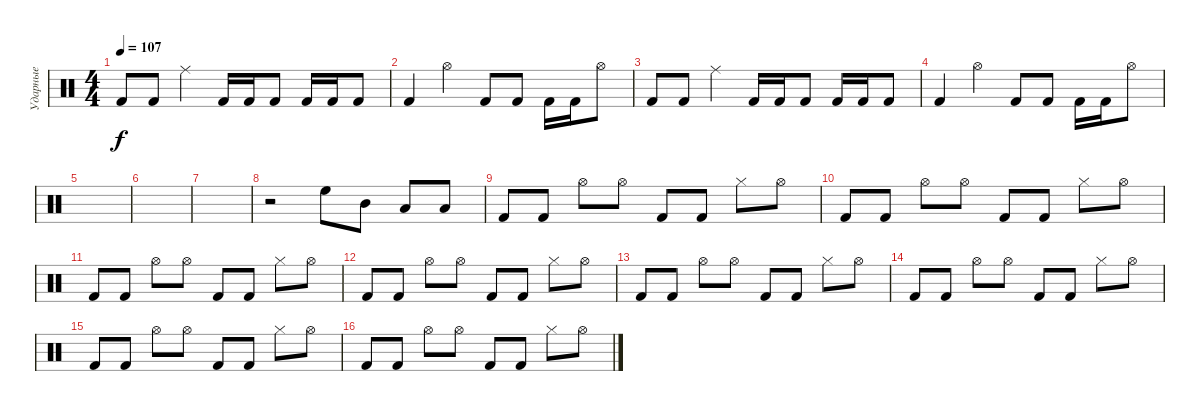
\track ("Ударные" "Ударные") {instrument percussion}
\staff {score}
\articulation defaults
\ts (4 4)
\tempo 107
\clef neutral
\ks c "Kick (hit) 2".8{dy f} "Kick (hit) 2".8 "Ride (middle)".4 "Kick (hit) 2".16 "Kick (hit) 2".16 "Kick (hit) 2".8 "Kick (hit) 2".16 "Kick (hit) 2".16 "Kick (hit) 2".8
|
"Kick (hit) 2".4 "Hi-Hat (open)".4 "Kick (hit) 2".8 "Kick (hit) 2".8 "Kick (hit) 2".16 "Kick (hit) 2".16 "Hi-Hat (open)".8 |
"Kick (hit) 2".8 "Kick (hit) 2".8 "Ride (middle)".4 "Kick (hit) 2".16 "Kick (hit) 2".16 "Kick (hit) 2".8 "Kick (hit) 2".16 "Kick (hit) 2".16 "Kick (hit) 2".8 |
"Kick (hit) 2".4 "Hi-Hat (open)".4 "Kick (hit) 2".8 "Kick (hit) 2".8 "Kick (hit) 2".16 "Kick (hit) 2".16 "Hi-Hat (open)".8 |
|
|
|
r.2{volume 16} "High Floor Tom (hit)".8 "Mid Tom (hit)".8 "Low Tom (hit)".8 "Low Floor Tom (hit)".8 |
"Kick (hit) 2".8{volume 16} "Kick (hit) 2".8 "Hi-Hat (open)".8 "Hi-Hat (open)".8 "Kick (hit) 2".8 "Kick (hit) 2".8 "Hi-Hat (closed)".8 "Hi-Hat (open)".8 |
"Kick (hit) 2".8{volume 16} "Kick (hit) 2".8 "Hi-Hat (open)".8 "Hi-Hat (open)".8 "Kick (hit) 2".8 "Kick (hit) 2".8 "Hi-Hat (closed)".8 "Hi-Hat (open)".8 |
"Kick (hit) 2".8{volume 16} "Kick (hit) 2".8 "Hi-Hat (open)".8 "Hi-Hat (open)".8 "Kick (hit) 2".8 "Kick (hit) 2".8 "Hi-Hat (closed)".8 "Hi-Hat (open)".8 |
"Kick (hit) 2".8{volume 16} "Kick (hit) 2".8 "Hi-Hat (open)".8 "Hi-Hat (open)".8 "Kick (hit) 2".8 "Kick (hit) 2".8 "Hi-Hat (closed)".8 "Hi-Hat (open)".8 |
"Kick (hit) 2".8{volume 16} "Kick (hit) 2".8 "Hi-Hat (open)".8 "Hi-Hat (open)".8 "Kick (hit) 2".8 "Kick (hit) 2".8 "Hi-Hat (closed)".8 "Hi-Hat (open)".8 |
"Kick (hit) 2".8{volume 16} "Kick (hit) 2".8 "Hi-Hat (open)".8 "Hi-Hat (open)".8 "Kick (hit) 2".8 "Kick (hit) 2".8 "Hi-Hat (closed)".8 "Hi-Hat (open)".8 |
"Kick (hit) 2".8{volume 16} "Kick (hit) 2".8 "Hi-Hat (open)".8 "Hi-Hat (open)".8 "Kick (hit) 2".8 "Kick (hit) 2".8 "Hi-Hat (closed)".8 "Hi-Hat (open)".8 |
"Kick (hit) 2".8{volume 16} "Kick (hit) 2".8 "Hi-Hat (open)".8 "Hi-Hat (open)".8 "Kick (hit) 2".8 "Kick (hit) 2".8 "Hi-Hat (closed)".8 "Hi-Hat (open)".8
